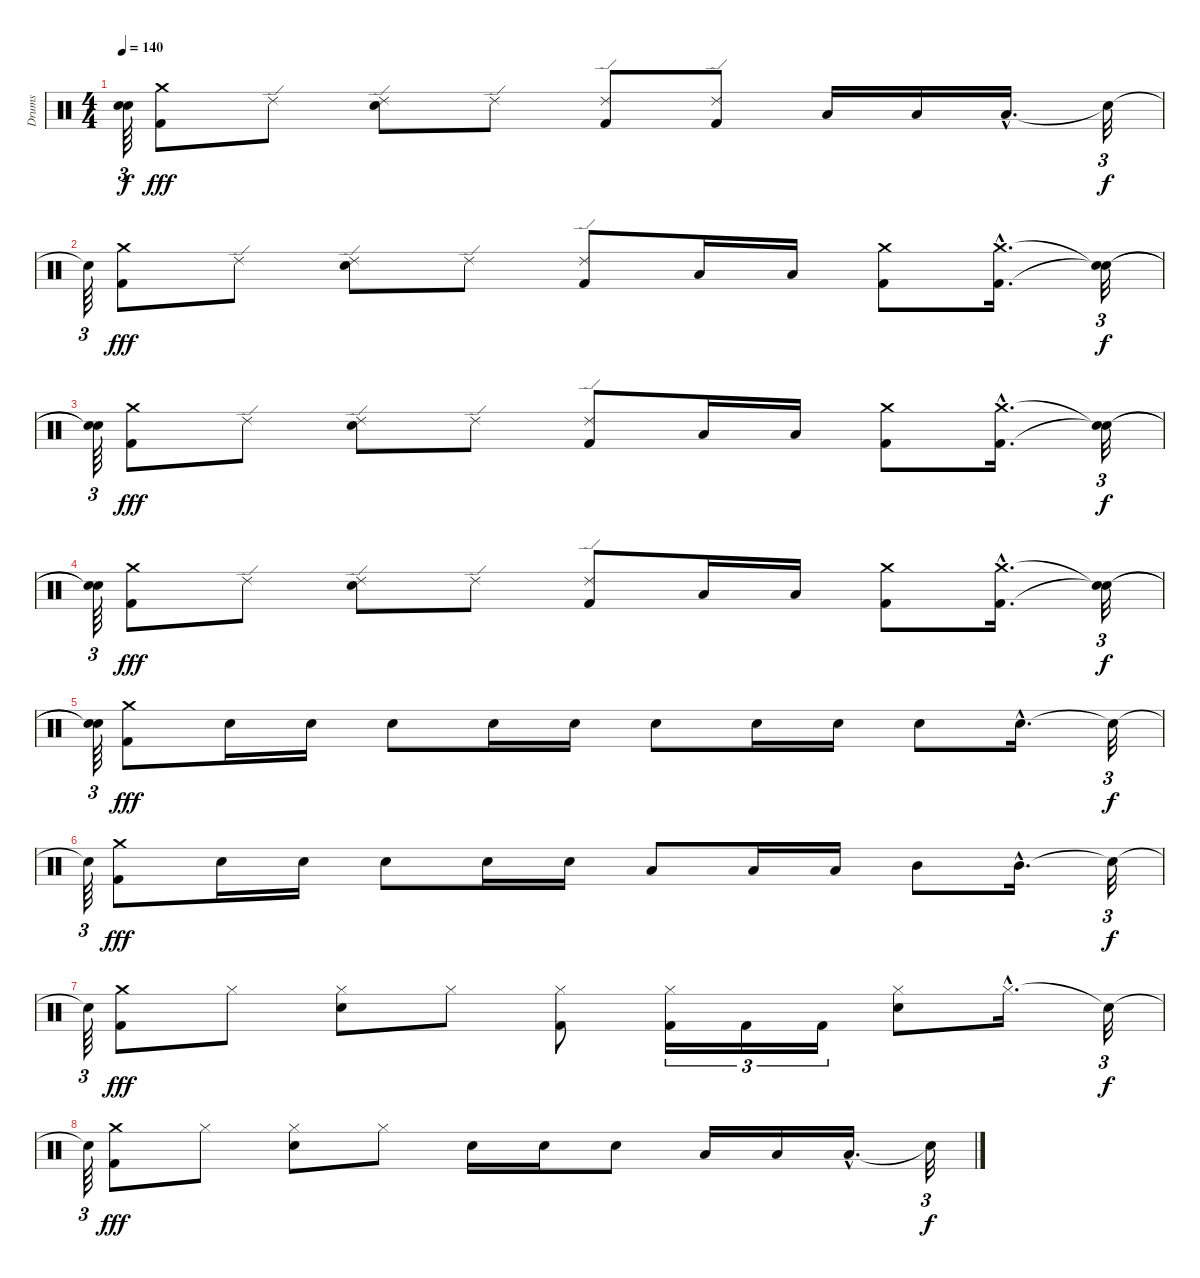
\track ("Drums" "Drums") {instrument percussion}
\staff {score}
\articulation defaults
\ts (4 4)
\tempo 140
\clef neutral
\ks c
("Snare (hit)"{t} "Snare (hit)"{t}).64{tu (3 2) dy f} ("Crash medium (hit)" "Kick (hit) 2").8{dy fff} "Ride (edge) 2".8 ("Snare (hit) 2" "Ride (edge) 2").8 "Ride (edge) 2".8 ("Kick (hit) 2" "Ride (edge) 2").8 ("Ride (edge) 2" "Kick (hit) 2").8 "Low Tom (hit)".16 "Low Tom (hit)".16 "Low Tom (hit)"{hac}.16{d} "Snare (hit)"{t}.32{tu (3 2) dy f} |
"Snare (hit)"{t}.64{tu (3 2)} ("Crash medium (hit)" "Kick (hit) 2").8{dy fff} "Ride (edge) 2".8 ("Snare (hit) 2" "Ride (edge) 2").8 "Ride (edge) 2".8 ("Ride (edge) 2" "Kick (hit) 2").8 "Low Tom (hit)".16 "Low Tom (hit)".16 ("Crash medium (hit)" "Kick (hit) 2").8 ("Crash medium (hit)"{hac} "Kick (hit) 2"{hac}).16{d} ("Snare (hit)"{t} "Snare (hit)"{t}).32{tu (3 2) dy f} |
("Snare (hit)"{t} "Snare (hit)"{t}).64{tu (3 2)} ("Crash medium (hit)" "Kick (hit) 2").8{dy fff} "Ride (edge) 2".8 ("Snare (hit) 2" "Ride (edge) 2").8 "Ride (edge) 2".8 ("Ride (edge) 2" "Kick (hit) 2").8 "Low Tom (hit)".16 "Low Tom (hit)".16 ("Crash medium (hit)" "Kick (hit) 2").8 ("Crash medium (hit)"{hac} "Kick (hit) 2"{hac}).16{d} ("Snare (hit)"{t} "Snare (hit)"{t}).32{tu (3 2) dy f} |
("Snare (hit)"{t} "Snare (hit)"{t}).64{tu (3 2)} ("Crash medium (hit)" "Kick (hit) 2").8{dy fff} "Ride (edge) 2".8 ("Snare (hit) 2" "Ride (edge) 2").8 "Ride (edge) 2".8 ("Ride (edge) 2" "Kick (hit) 2").8 "Low Tom (hit)".16 "Low Tom (hit)".16 ("Crash medium (hit)" "Kick (hit) 2").8 ("Crash medium (hit)"{hac} "Kick (hit) 2"{hac}).16{d} ("Snare (hit)"{t} "Snare (hit)"{t}).32{tu (3 2) dy f} |
("Snare (hit)"{t} "Snare (hit)"{t}).64{tu (3 2)} ("Kick (hit) 2" "Crash medium (hit)").8{dy fff} "Snare (hit) 2".16 "Snare (hit) 2".16 "Snare (hit) 2".8 "Snare (hit) 2".16 "Snare (hit) 2".16 "Snare (hit) 2".8 "Snare (hit) 2".16 "Snare (hit) 2".16 "Snare (hit) 2".8 "Snare (hit) 2"{hac}.16{d} "Snare (hit)"{t}.32{tu (3 2) dy f} |
"Snare (hit)"{t}.64{tu (3 2)} ("Crash medium (hit)" "Kick (hit) 2").8{dy fff} "Snare (hit) 2".16 "Snare (hit) 2".16 "Snare (hit) 2".8 "Snare (hit) 2".16 "Snare (hit) 2".16 "Low Tom (hit)".8 "Low Tom (hit)".16 "Low Tom (hit)".16 "Mid Tom (hit)".8 "Mid Tom (hit)"{hac}.16{d} "Snare (hit)"{t}.32{tu (3 2) dy f} |
"Snare (hit)"{t}.64{tu (3 2)} ("Crash medium (hit)" "Kick (hit) 2").8{dy fff} "Hi-Hat (closed)".8 ("Snare (hit) 2" "Hi-Hat (closed)").8 "Hi-Hat (closed)".8 ("Kick (hit) 2" "Hi-Hat (closed)").8 ("Kick (hit) 2" "Hi-Hat (closed)").16{tu (3 2)} "Kick (hit) 2".16{tu (3 2)} "Kick (hit) 2".16{tu (3 2)} ("Snare (hit) 2" "Hi-Hat (closed)").8 "Hi-Hat (closed)"{hac}.16{d} "Snare (hit)"{t}.32{tu (3 2) dy f} |
"Snare (hit)"{t}.64{tu (3 2)} ("Kick (hit) 2" "Crash medium (hit)").8{dy fff} "Hi-Hat (closed)".8 ("Snare (hit) 2" "Hi-Hat (closed)").8 "Hi-Hat (closed)".8 "Snare (hit) 2".16 "Snare (hit) 2".16 "Snare (hit) 2".8 "Low Tom (hit)".16 "Low Tom (hit)".16 "Low Tom (hit)"{hac}.16{d} "Snare (hit)"{t}.32{tu (3 2) dy f}
